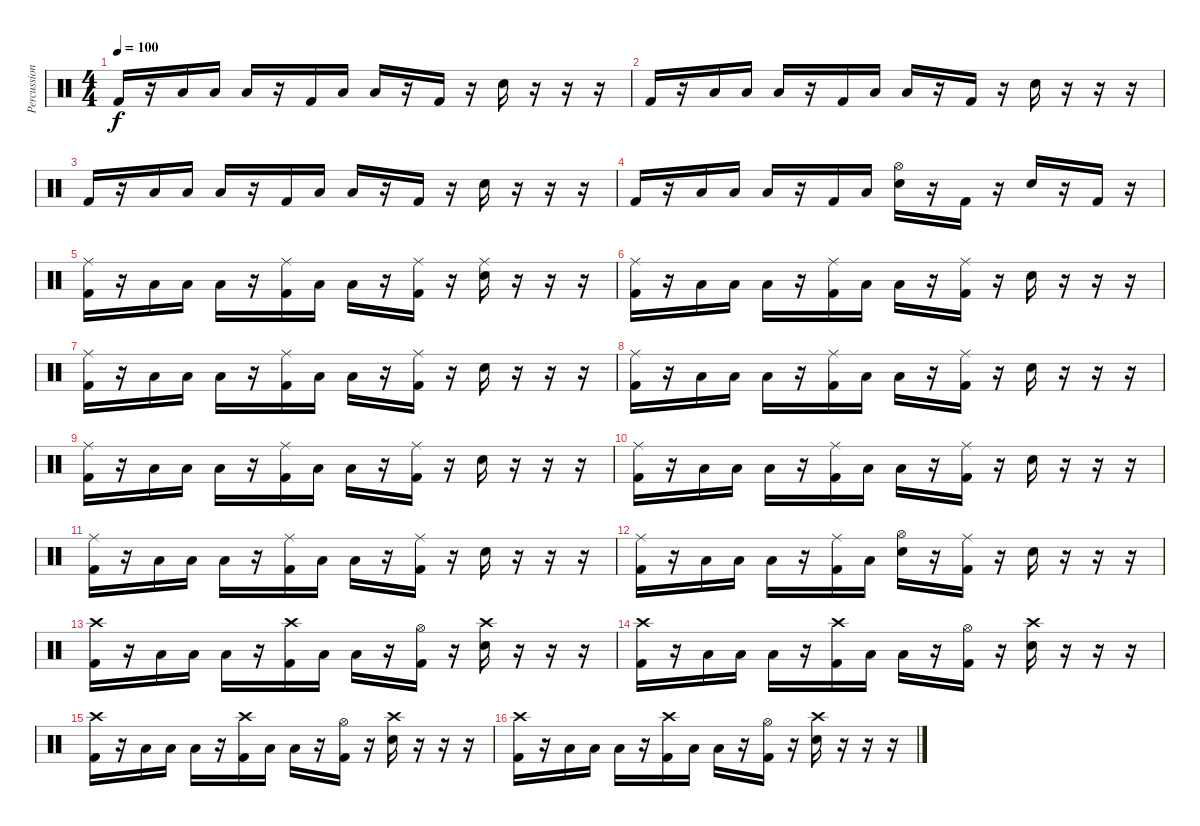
\track ("Percussion" "Percussion") {instrument percussion}
\staff {score}
\articulation defaults
\ts (4 4)
\tempo 100
\clef neutral
\ks c "Kick (hit) 2".16{dy f}
r.16 "Low Floor Tom (hit)".16 "Low Floor Tom (hit)".16 "Low Floor Tom (hit)".16 r.16 "Kick (hit) 2".16 "Low Floor Tom (hit)".16 "Low Floor Tom (hit)".16 r.16 "Kick (hit) 2".16 r.16 "Snare (hit) 2".16 r.16 r.16 r.16 |
"Kick (hit) 2".16 r.16 "Low Floor Tom (hit)".16 "Low Floor Tom (hit)".16 "Low Floor Tom (hit)".16 r.16 "Kick (hit) 2".16 "Low Floor Tom (hit)".16 "Low Floor Tom (hit)".16 r.16 "Kick (hit) 2".16 r.16 "Snare (hit) 2".16 r.16 r.16 r.16 |
"Kick (hit) 2".16 r.16 "Low Floor Tom (hit)".16 "Low Floor Tom (hit)".16 "Low Floor Tom (hit)".16 r.16 "Kick (hit) 2".16 "Low Floor Tom (hit)".16 "Low Floor Tom (hit)".16 r.16 "Kick (hit) 2".16 r.16 "Snare (hit) 2".16 r.16 r.16 r.16 |
"Kick (hit) 2".16 r.16 "Low Floor Tom (hit)".16 "Low Floor Tom (hit)".16 "Low Floor Tom (hit)".16 r.16 "Kick (hit) 2".16 "Low Floor Tom (hit)".16 ("Hi-Hat (open)" "Snare (hit) 2").16 r.16 "Kick (hit) 2".16 r.16 "Snare (hit) 2".16 r.16 "Kick (hit) 2".16 r.16 |
("Ride (middle)" "Kick (hit) 2").16 r.16 "Low Floor Tom (hit)".16 "Low Floor Tom (hit)".16 "Low Floor Tom (hit)".16 r.16 ("Ride (middle)" "Kick (hit) 2").16 "Low Floor Tom (hit)".16 "Low Floor Tom (hit)".16 r.16 ("Ride (middle)" "Kick (hit) 2").16 r.16 ("Ride (middle)" "Snare (hit) 2").16 r.16 r.16 r.16 |
("Ride (middle)" "Kick (hit) 2").16 r.16 "Low Floor Tom (hit)".16 "Low Floor Tom (hit)".16 "Low Floor Tom (hit)".16 r.16 ("Ride (middle)" "Kick (hit) 2").16 "Low Floor Tom (hit)".16 "Low Floor Tom (hit)".16 r.16 ("Ride (middle)" "Kick (hit) 2").16 r.16 "Snare (hit) 2".16 r.16 r.16 r.16 |
("Ride (middle)" "Kick (hit) 2").16 r.16 "Low Floor Tom (hit)".16 "Low Floor Tom (hit)".16 "Low Floor Tom (hit)".16 r.16 ("Ride (middle)" "Kick (hit) 2").16 "Low Floor Tom (hit)".16 "Low Floor Tom (hit)".16 r.16 ("Ride (middle)" "Kick (hit) 2").16 r.16 "Snare (hit) 2".16 r.16 r.16 r.16 |
("Ride (middle)" "Kick (hit) 2").16 r.16 "Low Floor Tom (hit)".16 "Low Floor Tom (hit)".16 "Low Floor Tom (hit)".16 r.16 ("Ride (middle)" "Kick (hit) 2").16 "Low Floor Tom (hit)".16 "Low Floor Tom (hit)".16 r.16 ("Ride (middle)" "Kick (hit) 2").16 r.16 "Snare (hit) 2".16 r.16 r.16 r.16 |
("Ride (middle)" "Kick (hit) 2").16 r.16 "Low Floor Tom (hit)".16 "Low Floor Tom (hit)".16 "Low Floor Tom (hit)".16 r.16 ("Ride (middle)" "Kick (hit) 2").16 "Low Floor Tom (hit)".16 "Low Floor Tom (hit)".16 r.16 ("Ride (middle)" "Kick (hit) 2").16 r.16 "Snare (hit) 2".16 r.16 r.16 r.16 |
("Ride (middle)" "Kick (hit) 2").16 r.16 "Low Floor Tom (hit)".16 "Low Floor Tom (hit)".16 "Low Floor Tom (hit)".16 r.16 ("Ride (middle)" "Kick (hit) 2").16 "Low Floor Tom (hit)".16 "Low Floor Tom (hit)".16 r.16 ("Ride (middle)" "Kick (hit) 2").16 r.16 "Snare (hit) 2".16 r.16 r.16 r.16 |
("Ride (middle)" "Kick (hit) 2").16 r.16 "Low Floor Tom (hit)".16 "Low Floor Tom (hit)".16 "Low Floor Tom (hit)".16 r.16 ("Ride (middle)" "Kick (hit) 2").16 "Low Floor Tom (hit)".16 "Low Floor Tom (hit)".16 r.16 ("Ride (middle)" "Kick (hit) 2").16 r.16 "Snare (hit) 2".16 r.16 r.16 r.16 |
("Ride (middle)" "Kick (hit) 2").16 r.16 "Low Floor Tom (hit)".16 "Low Floor Tom (hit)".16 "Low Floor Tom (hit)".16 r.16 ("Ride (middle)" "Kick (hit) 2").16 "Low Floor Tom (hit)".16 ("Hi-Hat (open)" "Snare (hit) 2").16 r.16 ("Ride (middle)" "Kick (hit) 2").16 r.16 "Snare (hit) 2".16 r.16 r.16 r.16 |
("Crash high (hit)" "Kick (hit) 2").16 r.16 "Low Floor Tom (hit)".16 "Low Floor Tom (hit)".16 "Low Floor Tom (hit)".16 r.16 ("Crash high (hit)" "Kick (hit) 2").16 "Low Floor Tom (hit)".16 "Low Floor Tom (hit)".16 r.16 ("Hi-Hat (open)" "Kick (hit) 2").16 r.16 ("Crash high (hit)" "Snare (hit) 2").16 r.16 r.16 r.16 |
("Crash high (hit)" "Kick (hit) 2").16 r.16 "Low Floor Tom (hit)".16 "Low Floor Tom (hit)".16 "Low Floor Tom (hit)".16 r.16 ("Crash high (hit)" "Kick (hit) 2").16 "Low Floor Tom (hit)".16 "Low Floor Tom (hit)".16 r.16 ("Hi-Hat (open)" "Kick (hit) 2").16 r.16 ("Crash high (hit)" "Snare (hit) 2").16 r.16 r.16 r.16 |
("Crash high (hit)" "Kick (hit) 2").16 r.16 "Low Floor Tom (hit)".16 "Low Floor Tom (hit)".16 "Low Floor Tom (hit)".16 r.16 ("Crash high (hit)" "Kick (hit) 2").16 "Low Floor Tom (hit)".16 "Low Floor Tom (hit)".16 r.16 ("Hi-Hat (open)" "Kick (hit) 2").16 r.16 ("Crash high (hit)" "Snare (hit) 2").16 r.16 r.16 r.16 |
("Crash high (hit)" "Kick (hit) 2").16 r.16 "Low Floor Tom (hit)".16 "Low Floor Tom (hit)".16 "Low Floor Tom (hit)".16 r.16 ("Crash high (hit)" "Kick (hit) 2").16 "Low Floor Tom (hit)".16 "Low Floor Tom (hit)".16 r.16 ("Hi-Hat (open)" "Kick (hit) 2").16 r.16 ("Crash high (hit)" "Snare (hit) 2").16 r.16 r.16 r.16
